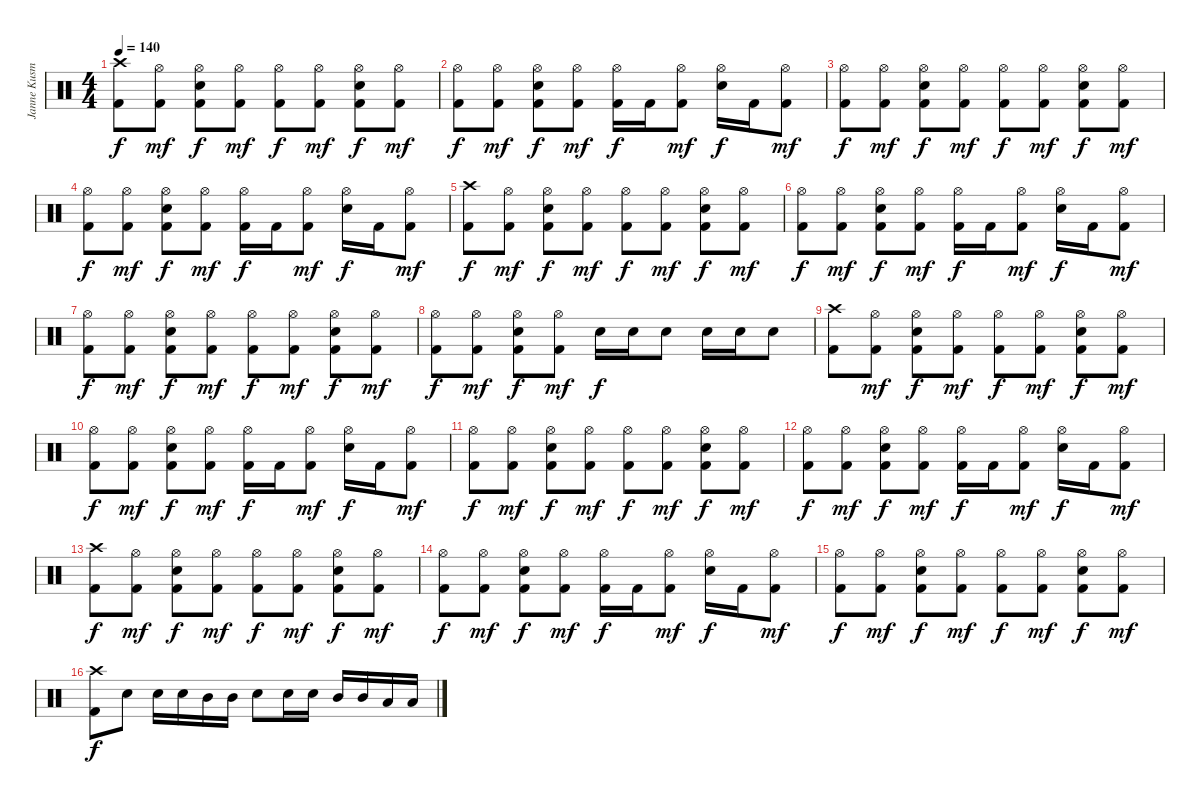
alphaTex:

\track ("Janne Kusmin" "Janne Kusm") {instrument percussion}
\staff {score}
\articulation defaults
\ts (4 4)
\tempo 140
\clef neutral
\ks c
("Crash high (hit)" "Kick (hit) 2").8{dy f} ("Hi-Hat (open)" "Kick (hit) 2").8{dy mf} ("Hi-Hat (open)" "Electric Snare (hit)" "Kick (hit) 2").8{dy f} ("Hi-Hat (open)" "Kick (hit) 2").8{dy mf} ("Hi-Hat (open)" "Kick (hit) 2").8{dy f} ("Hi-Hat (open)" "Kick (hit) 2").8{dy mf} ("Hi-Hat (open)" "Electric Snare (hit)" "Kick (hit) 2").8{dy f} ("Hi-Hat (open)" "Kick (hit) 2").8{dy mf} |
("Hi-Hat (open)" "Kick (hit) 2").8{dy f} ("Hi-Hat (open)" "Kick (hit) 2").8{dy mf} ("Hi-Hat (open)" "Electric Snare (hit)" "Kick (hit) 2").8{dy f} ("Hi-Hat (open)" "Kick (hit) 2").8{dy mf} ("Hi-Hat (open)" "Kick (hit) 2").16{dy f} "Kick (hit) 2".16 ("Hi-Hat (open)" "Kick (hit) 2").8{dy mf} ("Hi-Hat (open)" "Electric Snare (hit)").16{dy f} "Kick (hit) 2".16 ("Hi-Hat (open)" "Kick (hit) 2").8{dy mf} |
("Hi-Hat (open)" "Kick (hit) 2").8{dy f} ("Hi-Hat (open)" "Kick (hit) 2").8{dy mf} ("Hi-Hat (open)" "Electric Snare (hit)" "Kick (hit) 2").8{dy f} ("Hi-Hat (open)" "Kick (hit) 2").8{dy mf} ("Hi-Hat (open)" "Kick (hit) 2").8{dy f} ("Hi-Hat (open)" "Kick (hit) 2").8{dy mf} ("Hi-Hat (open)" "Electric Snare (hit)" "Kick (hit) 2").8{dy f} ("Hi-Hat (open)" "Kick (hit) 2").8{dy mf} |
("Hi-Hat (open)" "Kick (hit) 2").8{dy f} ("Hi-Hat (open)" "Kick (hit) 2").8{dy mf} ("Hi-Hat (open)" "Electric Snare (hit)" "Kick (hit) 2").8{dy f} ("Hi-Hat (open)" "Kick (hit) 2").8{dy mf} ("Hi-Hat (open)" "Kick (hit) 2").16{dy f} "Kick (hit) 2".16 ("Hi-Hat (open)" "Kick (hit) 2").8{dy mf} ("Hi-Hat (open)" "Electric Snare (hit)").16{dy f} "Kick (hit) 2".16 ("Hi-Hat (open)" "Kick (hit) 2").8{dy mf} |
("Crash high (hit)" "Kick (hit) 2").8{dy f} ("Hi-Hat (open)" "Kick (hit) 2").8{dy mf} ("Hi-Hat (open)" "Electric Snare (hit)" "Kick (hit) 2").8{dy f} ("Hi-Hat (open)" "Kick (hit) 2").8{dy mf} ("Hi-Hat (open)" "Kick (hit) 2").8{dy f} ("Hi-Hat (open)" "Kick (hit) 2").8{dy mf} ("Hi-Hat (open)" "Electric Snare (hit)" "Kick (hit) 2").8{dy f} ("Hi-Hat (open)" "Kick (hit) 2").8{dy mf} |
("Hi-Hat (open)" "Kick (hit) 2").8{dy f} ("Hi-Hat (open)" "Kick (hit) 2").8{dy mf} ("Hi-Hat (open)" "Electric Snare (hit)" "Kick (hit) 2").8{dy f} ("Hi-Hat (open)" "Kick (hit) 2").8{dy mf} ("Hi-Hat (open)" "Kick (hit) 2").16{dy f} "Kick (hit) 2".16 ("Hi-Hat (open)" "Kick (hit) 2").8{dy mf} ("Hi-Hat (open)" "Electric Snare (hit)").16{dy f} "Kick (hit) 2".16 ("Hi-Hat (open)" "Kick (hit) 2").8{dy mf} |
("Hi-Hat (open)" "Kick (hit) 2").8{dy f} ("Hi-Hat (open)" "Kick (hit) 2").8{dy mf} ("Hi-Hat (open)" "Electric Snare (hit)" "Kick (hit) 2").8{dy f} ("Hi-Hat (open)" "Kick (hit) 2").8{dy mf} ("Hi-Hat (open)" "Kick (hit) 2").8{dy f} ("Hi-Hat (open)" "Kick (hit) 2").8{dy mf} ("Hi-Hat (open)" "Electric Snare (hit)" "Kick (hit) 2").8{dy f} ("Hi-Hat (open)" "Kick (hit) 2").8{dy mf} |
("Hi-Hat (open)" "Kick (hit) 2").8{dy f} ("Hi-Hat (open)" "Kick (hit) 2").8{dy mf} ("Hi-Hat (open)" "Electric Snare (hit)" "Kick (hit) 2").8{dy f} ("Hi-Hat (open)" "Kick (hit) 2").8{dy mf} "Electric Snare (hit)".16{dy f} "Electric Snare (hit)".16 "Electric Snare (hit)".8 "Electric Snare (hit)".16 "Electric Snare (hit)".16 "Electric Snare (hit)".8 |
("Crash high (hit)" "Kick (hit) 2").8 ("Hi-Hat (open)" "Kick (hit) 2").8{dy mf} ("Hi-Hat (open)" "Electric Snare (hit)" "Kick (hit) 2").8{dy f} ("Hi-Hat (open)" "Kick (hit) 2").8{dy mf} ("Hi-Hat (open)" "Kick (hit) 2").8{dy f} ("Hi-Hat (open)" "Kick (hit) 2").8{dy mf} ("Hi-Hat (open)" "Electric Snare (hit)" "Kick (hit) 2").8{dy f} ("Hi-Hat (open)" "Kick (hit) 2").8{dy mf} |
("Hi-Hat (open)" "Kick (hit) 2").8{dy f} ("Hi-Hat (open)" "Kick (hit) 2").8{dy mf} ("Hi-Hat (open)" "Electric Snare (hit)" "Kick (hit) 2").8{dy f} ("Hi-Hat (open)" "Kick (hit) 2").8{dy mf} ("Hi-Hat (open)" "Kick (hit) 2").16{dy f} "Kick (hit) 2".16 ("Hi-Hat (open)" "Kick (hit) 2").8{dy mf} ("Hi-Hat (open)" "Electric Snare (hit)").16{dy f} "Kick (hit) 2".16 ("Hi-Hat (open)" "Kick (hit) 2").8{dy mf} |
("Hi-Hat (open)" "Kick (hit) 2").8{dy f} ("Hi-Hat (open)" "Kick (hit) 2").8{dy mf} ("Hi-Hat (open)" "Electric Snare (hit)" "Kick (hit) 2").8{dy f} ("Hi-Hat (open)" "Kick (hit) 2").8{dy mf} ("Hi-Hat (open)" "Kick (hit) 2").8{dy f} ("Hi-Hat (open)" "Kick (hit) 2").8{dy mf} ("Hi-Hat (open)" "Electric Snare (hit)" "Kick (hit) 2").8{dy f} ("Hi-Hat (open)" "Kick (hit) 2").8{dy mf} |
("Hi-Hat (open)" "Kick (hit) 2").8{dy f} ("Hi-Hat (open)" "Kick (hit) 2").8{dy mf} ("Hi-Hat (open)" "Electric Snare (hit)" "Kick (hit) 2").8{dy f} ("Hi-Hat (open)" "Kick (hit) 2").8{dy mf} ("Hi-Hat (open)" "Kick (hit) 2").16{dy f} "Kick (hit) 2".16 ("Hi-Hat (open)" "Kick (hit) 2").8{dy mf} ("Hi-Hat (open)" "Electric Snare (hit)").16{dy f} "Kick (hit) 2".16 ("Hi-Hat (open)" "Kick (hit) 2").8{dy mf} |
("Crash high (hit)" "Kick (hit) 2").8{dy f} ("Hi-Hat (open)" "Kick (hit) 2").8{dy mf} ("Hi-Hat (open)" "Electric Snare (hit)" "Kick (hit) 2").8{dy f} ("Hi-Hat (open)" "Kick (hit) 2").8{dy mf} ("Hi-Hat (open)" "Kick (hit) 2").8{dy f} ("Hi-Hat (open)" "Kick (hit) 2").8{dy mf} ("Hi-Hat (open)" "Electric Snare (hit)" "Kick (hit) 2").8{dy f} ("Hi-Hat (open)" "Kick (hit) 2").8{dy mf} |
("Hi-Hat (open)" "Kick (hit) 2").8{dy f} ("Hi-Hat (open)" "Kick (hit) 2").8{dy mf} ("Hi-Hat (open)" "Electric Snare (hit)" "Kick (hit) 2").8{dy f} ("Hi-Hat (open)" "Kick (hit) 2").8{dy mf} ("Hi-Hat (open)" "Kick (hit) 2").16{dy f} "Kick (hit) 2".16 ("Hi-Hat (open)" "Kick (hit) 2").8{dy mf} ("Hi-Hat (open)" "Electric Snare (hit)").16{dy f} "Kick (hit) 2".16 ("Hi-Hat (open)" "Kick (hit) 2").8{dy mf} |
("Hi-Hat (open)" "Kick (hit) 2").8{dy f} ("Hi-Hat (open)" "Kick (hit) 2").8{dy mf} ("Hi-Hat (open)" "Electric Snare (hit)" "Kick (hit) 2").8{dy f} ("Hi-Hat (open)" "Kick (hit) 2").8{dy mf} ("Hi-Hat (open)" "Kick (hit) 2").8{dy f} ("Hi-Hat (open)" "Kick (hit) 2").8{dy mf} ("Hi-Hat (open)" "Electric Snare (hit)" "Kick (hit) 2").8{dy f} ("Hi-Hat (open)" "Kick (hit) 2").8{dy mf} |
("Crash high (hit)" "Kick (hit) 2").8{dy f} "Electric Snare (hit)".8 "Electric Snare (hit)".16 "Electric Snare (hit)".16 "Mid Tom (hit)".16 "Mid Tom (hit)".16 "Electric Snare (hit)".8 "Electric Snare (hit)".16 "Electric Snare (hit)".16 "Mid Tom (hit)".16 "Mid Tom (hit)".16 "Low Tom (hit)".16 "Low Tom (hit)".16
